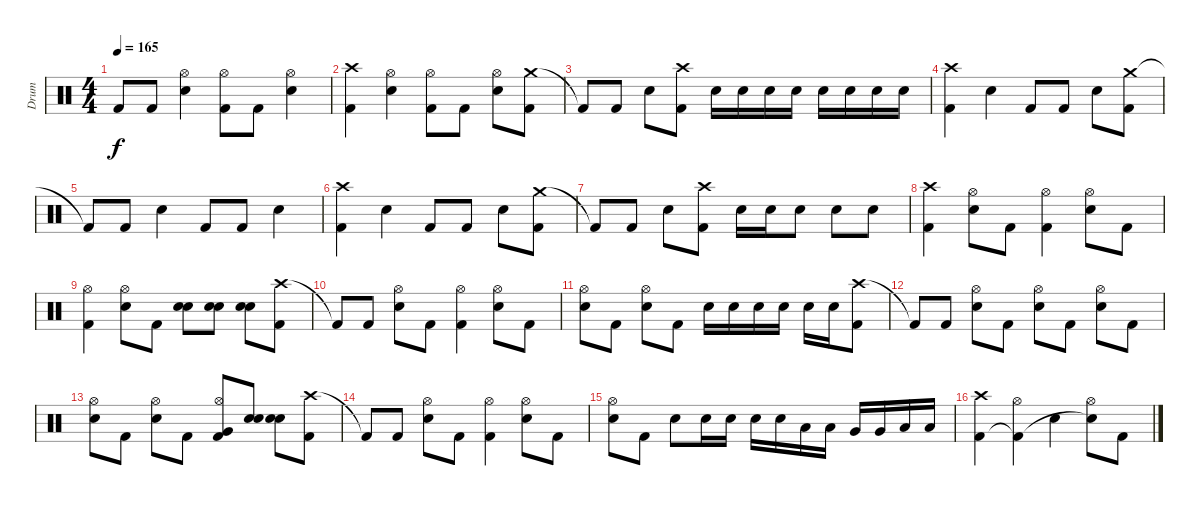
\track ("Drum" "Drum") {instrument percussion}
\staff {score}
\articulation defaults
\ts (4 4)
\tempo 165
\clef neutral
\ks c "Kick (hit) 2"{t}.8{dy f} "Kick (hit) 2".8
("Hi-Hat (open)" "Electric Snare (hit)").4 ("Hi-Hat (open)" "Kick (hit) 2").8 "Kick (hit) 2".8 ("Hi-Hat (open)" "Electric Snare (hit)").4 |
("Crash high (hit)" "Kick (hit) 2").4 ("Hi-Hat (open)" "Electric Snare (hit)").4 ("Hi-Hat (open)" "Kick (hit) 2").8 "Kick (hit) 2".8 ("Hi-Hat (open)" "Electric Snare (hit)").8 ("Crash medium (hit)" "Kick (hit) 2").8 |
"Kick (hit) 2"{t}.8 "Kick (hit) 2".8 "Electric Snare (hit)".8 ("Crash high (hit)" "Kick (hit) 2").8 "Electric Snare (hit)".16 "Electric Snare (hit)".16 "Electric Snare (hit)".16 "Electric Snare (hit)".16 "Electric Snare (hit)".16 "Electric Snare (hit)".16 "Electric Snare (hit)".16 "Electric Snare (hit)".16 |
("Crash high (hit)" "Kick (hit) 2").4 "Electric Snare (hit)".4 "Kick (hit) 2".8 "Kick (hit) 2".8 "Electric Snare (hit)".8 ("Crash medium (hit)" "Kick (hit) 2").8 |
"Kick (hit) 2"{t}.8 "Kick (hit) 2".8 "Electric Snare (hit)".4 "Kick (hit) 2".8 "Kick (hit) 2".8 "Electric Snare (hit)".4 |
("Crash high (hit)" "Kick (hit) 2").4 "Electric Snare (hit)".4 "Kick (hit) 2".8 "Kick (hit) 2".8 "Electric Snare (hit)".8 ("Crash medium (hit)" "Kick (hit) 2").8 |
"Kick (hit) 2"{t}.8 "Kick (hit) 2".8 "Electric Snare (hit)".8 ("Crash high (hit)" "Kick (hit) 2").8 "Electric Snare (hit)".16 "Electric Snare (hit)".16 "Electric Snare (hit)".8 "Electric Snare (hit)".8 "Electric Snare (hit)".8 |
("Crash high (hit)" "Kick (hit) 2").4 ("Hi-Hat (open)" "Electric Snare (hit)").8 "Kick (hit) 2".8 ("Hi-Hat (open)" "Kick (hit) 2").4 ("Hi-Hat (open)" "Electric Snare (hit)").8 "Kick (hit) 2".8 |
("Hi-Hat (open)" "Kick (hit) 2").4 ("Hi-Hat (open)" "Electric Snare (hit)").8 "Kick (hit) 2".8 ("Electric Snare (hit)" "Electric Snare (hit)").8 ("Electric Snare (hit)" "Electric Snare (hit)").8 ("Electric Snare (hit)" "Electric Snare (hit)").8 ("Crash high (hit)" "Kick (hit) 2").8 |
"Kick (hit) 2"{t}.8 "Kick (hit) 2".8 ("Hi-Hat (open)" "Electric Snare (hit)").8 "Kick (hit) 2".8 ("Hi-Hat (open)" "Kick (hit) 2").4 ("Hi-Hat (open)" "Electric Snare (hit)").8 "Kick (hit) 2".8 |
("Hi-Hat (open)" "Electric Snare (hit)").8 "Kick (hit) 2".8 ("Hi-Hat (open)" "Electric Snare (hit)").8 "Kick (hit) 2".8 "Electric Snare (hit)".16 "Electric Snare (hit)".16 "Electric Snare (hit)".16 "Electric Snare (hit)".16 "Electric Snare (hit)".16 "Electric Snare (hit)".16 ("Crash high (hit)" "Kick (hit) 2").8 |
"Kick (hit) 2"{t}.8 "Kick (hit) 2".8 ("Hi-Hat (open)" "Electric Snare (hit)").8 "Kick (hit) 2".8 ("Hi-Hat (open)" "Electric Snare (hit)").8 "Kick (hit) 2".8 ("Hi-Hat (open)" "Electric Snare (hit)").8 "Kick (hit) 2".8 |
("Hi-Hat (open)" "Electric Snare (hit)").8 "Kick (hit) 2".8 ("Hi-Hat (open)" "Electric Snare (hit)").8 "Kick (hit) 2".8 ("Hi-Hat (open)" "Very Low Tom (hit)" "Kick (hit) 2").8 ("Electric Snare (hit)" "Electric Snare (hit)").8 ("Electric Snare (hit)" "Electric Snare (hit)").8 ("Crash high (hit)" "Kick (hit) 2").8 |
"Kick (hit) 2"{t}.8 "Kick (hit) 2".8 ("Hi-Hat (open)" "Electric Snare (hit)").8 "Kick (hit) 2".8 ("Hi-Hat (open)" "Kick (hit) 2").4 ("Hi-Hat (open)" "Electric Snare (hit)").8 "Kick (hit) 2".8 |
("Hi-Hat (open)" "Electric Snare (hit)").8 "Kick (hit) 2".8 "Electric Snare (hit)".8 "Electric Snare (hit)".16 "Electric Snare (hit)".16 "Electric Snare (hit)".16 "Electric Snare (hit)".16 "Low Tom (hit)".16 "Low Tom (hit)".16 "Very Low Tom (hit)".16 "Very Low Tom (hit)".16 "Low Floor Tom (hit)".16 "Low Floor Tom (hit)".16 |
("Crash high (hit)" "Kick (hit) 2").4 ("Hi-Hat (open)" "Kick (hit) 2"{t}).4 "Electric Snare (hit)".4 ("Hi-Hat (open)" "Electric Snare (hit)"{t}).8 "Kick (hit) 2".8
